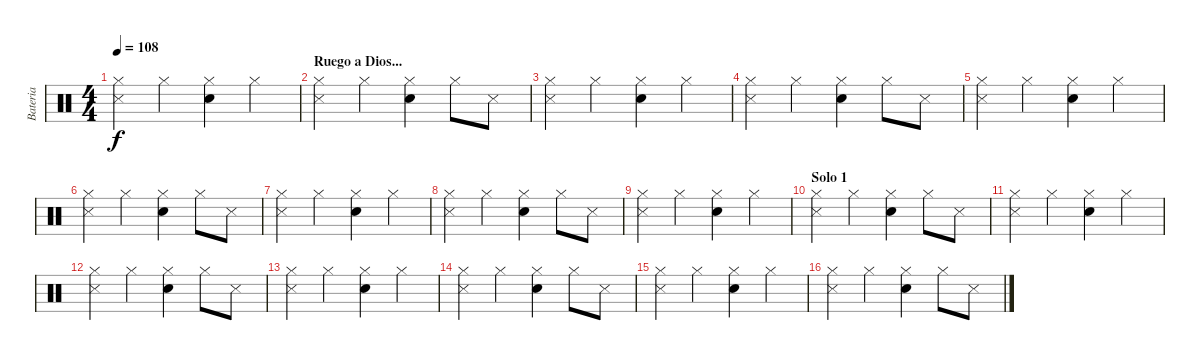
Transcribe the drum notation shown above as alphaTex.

\track ("Bateria" "Bateria") {instrument percussion}
\staff {score}
\articulation defaults
\ts (4 4)
\tempo 108
\clef neutral
\ks c
("Hi-Hat (closed)" "Snare (side stick) 3").4{dy f} "Hi-Hat (closed)".4 ("Snare (hit) 2" "Hi-Hat (closed)").4 "Hi-Hat (closed)".4 |
\section ("" "Ruego a Dios...")
("Hi-Hat (closed)" "Snare (side stick) 3").4 "Hi-Hat (closed)".4 ("Snare (hit) 2" "Hi-Hat (closed)").4 "Hi-Hat (closed)".8 "Snare (side stick) 3".8 |
("Hi-Hat (closed)" "Snare (side stick) 3").4 "Hi-Hat (closed)".4 ("Snare (hit) 2" "Hi-Hat (closed)").4 "Hi-Hat (closed)".4 |
("Hi-Hat (closed)" "Snare (side stick) 3").4 "Hi-Hat (closed)".4 ("Snare (hit) 2" "Hi-Hat (closed)").4 "Hi-Hat (closed)".8 "Snare (side stick) 3".8 |
("Hi-Hat (closed)" "Snare (side stick) 3").4 "Hi-Hat (closed)".4 ("Snare (hit) 2" "Hi-Hat (closed)").4 "Hi-Hat (closed)".4 |
("Hi-Hat (closed)" "Snare (side stick) 3").4 "Hi-Hat (closed)".4 ("Snare (hit) 2" "Hi-Hat (closed)").4 "Hi-Hat (closed)".8 "Snare (side stick) 3".8 |
("Hi-Hat (closed)" "Snare (side stick) 3").4 "Hi-Hat (closed)".4 ("Snare (hit) 2" "Hi-Hat (closed)").4 "Hi-Hat (closed)".4 |
("Hi-Hat (closed)" "Snare (side stick) 3").4 "Hi-Hat (closed)".4 ("Snare (hit) 2" "Hi-Hat (closed)").4 "Hi-Hat (closed)".8 "Snare (side stick) 3".8 |
("Hi-Hat (closed)" "Snare (side stick) 3").4 "Hi-Hat (closed)".4 ("Snare (hit) 2" "Hi-Hat (closed)").4 "Hi-Hat (closed)".4 |
\section ("" "Solo 1")
("Hi-Hat (closed)" "Snare (side stick) 3").4 "Hi-Hat (closed)".4 ("Snare (hit) 2" "Hi-Hat (closed)").4 "Hi-Hat (closed)".8 "Snare (side stick) 3".8 |
("Hi-Hat (closed)" "Snare (side stick) 3").4 "Hi-Hat (closed)".4 ("Snare (hit) 2" "Hi-Hat (closed)").4 "Hi-Hat (closed)".4 |
("Hi-Hat (closed)" "Snare (side stick) 3").4 "Hi-Hat (closed)".4 ("Snare (hit) 2" "Hi-Hat (closed)").4 "Hi-Hat (closed)".8 "Snare (side stick) 3".8 |
("Hi-Hat (closed)" "Snare (side stick) 3").4 "Hi-Hat (closed)".4 ("Snare (hit) 2" "Hi-Hat (closed)").4 "Hi-Hat (closed)".4 |
("Hi-Hat (closed)" "Snare (side stick) 3").4 "Hi-Hat (closed)".4 ("Snare (hit) 2" "Hi-Hat (closed)").4 "Hi-Hat (closed)".8 "Snare (side stick) 3".8 |
("Hi-Hat (closed)" "Snare (side stick) 3").4 "Hi-Hat (closed)".4 ("Snare (hit) 2" "Hi-Hat (closed)").4 "Hi-Hat (closed)".4 |
("Hi-Hat (closed)" "Snare (side stick) 3").4 "Hi-Hat (closed)".4 ("Snare (hit) 2" "Hi-Hat (closed)").4 "Hi-Hat (closed)".8 "Snare (side stick) 3".8
